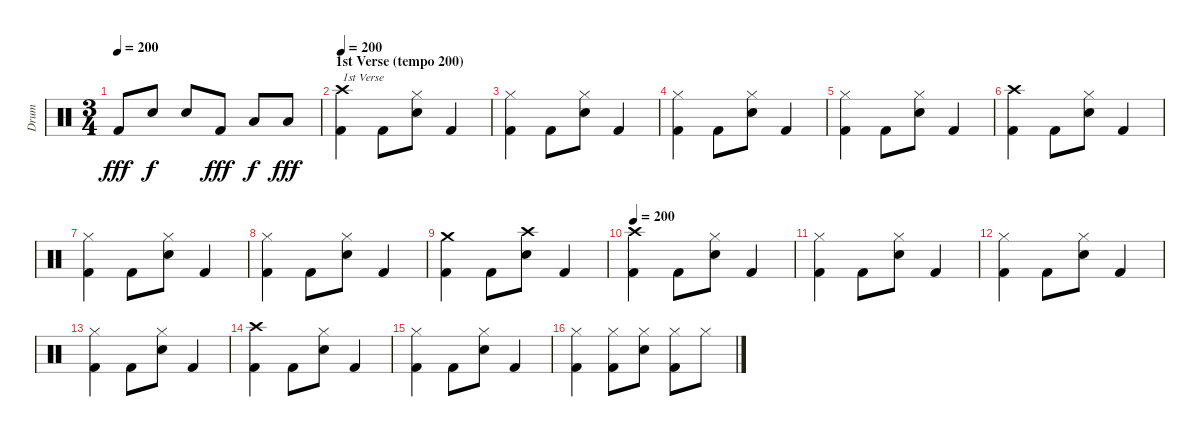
\track ("Drum" "Drum") {instrument percussion}
\staff {score}
\articulation defaults
\ts (3 4)
\tempo 200
\clef neutral
\ks c "Kick (hit) 2".8{dy fff} "Snare (hit) 2".8{dy f} "Snare (hit) 2".8 "Kick (hit) 2".8{dy fff} "Low Tom (hit)".8{dy f} "Low Tom (hit)".8{dy fff}
|
\section ("" "1st Verse (tempo 200)")
\tempo 200
("Crash high (hit)" "Kick (hit) 2").4{txt "1st Verse"} "Kick (hit) 2".8 ("Hi-Hat (closed)" "Snare (hit) 2").8 "Kick (hit) 2".4 |
("Hi-Hat (closed)" "Kick (hit) 2").4 "Kick (hit) 2".8 ("Hi-Hat (closed)" "Snare (hit) 2").8 "Kick (hit) 2".4 |
("Hi-Hat (closed)" "Kick (hit) 2").4 "Kick (hit) 2".8 ("Hi-Hat (closed)" "Snare (hit) 2").8 "Kick (hit) 2".4 |
("Hi-Hat (closed)" "Kick (hit) 2").4 "Kick (hit) 2".8 ("Hi-Hat (closed)" "Snare (hit) 2").8 "Kick (hit) 2".4 |
("Crash high (hit)" "Kick (hit) 2").4 "Kick (hit) 2".8 ("Hi-Hat (closed)" "Snare (hit) 2").8 "Kick (hit) 2".4 |
("Hi-Hat (closed)" "Kick (hit) 2").4 "Kick (hit) 2".8 ("Hi-Hat (closed)" "Snare (hit) 2").8 "Kick (hit) 2".4 |
("Hi-Hat (closed)" "Kick (hit) 2").4 "Kick (hit) 2".8 ("Hi-Hat (closed)" "Snare (hit) 2").8 "Kick (hit) 2".4 |
("Crash medium (hit)" "Kick (hit) 2").4 "Kick (hit) 2".8 ("Crash high (hit)" "Snare (hit) 2").8 "Kick (hit) 2".4 |
\tempo 200
("Crash high (hit)" "Kick (hit) 2").4 "Kick (hit) 2".8 ("Hi-Hat (closed)" "Snare (hit) 2").8 "Kick (hit) 2".4 |
("Hi-Hat (closed)" "Kick (hit) 2").4 "Kick (hit) 2".8 ("Hi-Hat (closed)" "Snare (hit) 2").8 "Kick (hit) 2".4 |
("Hi-Hat (closed)" "Kick (hit) 2").4 "Kick (hit) 2".8 ("Hi-Hat (closed)" "Snare (hit) 2").8 "Kick (hit) 2".4 |
("Hi-Hat (closed)" "Kick (hit) 2").4 "Kick (hit) 2".8 ("Hi-Hat (closed)" "Snare (hit) 2").8 "Kick (hit) 2".4 |
("Crash high (hit)" "Kick (hit) 2").4 "Kick (hit) 2".8 ("Hi-Hat (closed)" "Snare (hit) 2").8 "Kick (hit) 2".4 |
("Hi-Hat (closed)" "Kick (hit) 2").4 "Kick (hit) 2".8 ("Hi-Hat (closed)" "Snare (hit) 2").8 "Kick (hit) 2".4 |
("Hi-Hat (closed)" "Kick (hit) 2").4 ("Hi-Hat (closed)" "Kick (hit) 2").8 ("Hi-Hat (closed)" "Snare (hit) 2").8 ("Hi-Hat (closed)" "Kick (hit) 2").8 "Hi-Hat (closed)".8
